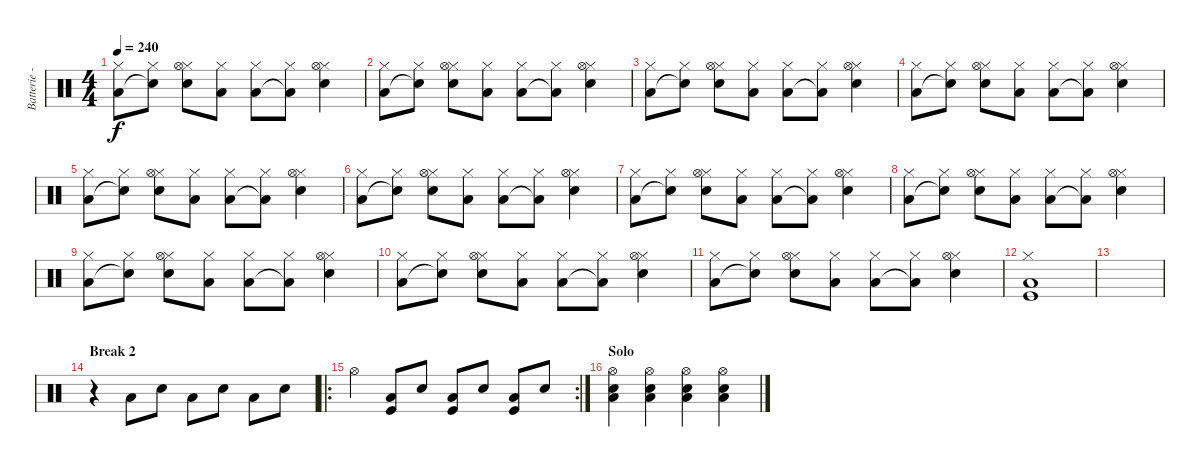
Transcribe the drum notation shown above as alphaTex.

\track ("Batterie - Guillaume" "Batterie -") {instrument percussion}
\staff {score}
\articulation defaults
\ts (4 4)
\tempo 240
\clef neutral
\ks c
("Hi-Hat (closed)" "Low Tom (hit)").8{dy f} ("Hi-Hat (closed)" "Snare (hit)"{t}).8 ("Hi-Hat (closed)" "Hi-Hat (open)" "Electric Snare (hit)").8 ("Hi-Hat (closed)" "Low Tom (hit)").8 ("Hi-Hat (closed)" "Low Tom (hit)").8 ("Hi-Hat (closed)" "Low Tom (hit)"{t}).8 ("Hi-Hat (closed)" "Hi-Hat (open)" "Electric Snare (hit)").4 |
("Hi-Hat (closed)" "Low Tom (hit)").8 ("Hi-Hat (closed)" "Snare (hit)"{t}).8 ("Hi-Hat (closed)" "Hi-Hat (open)" "Electric Snare (hit)").8 ("Hi-Hat (closed)" "Low Tom (hit)").8 ("Hi-Hat (closed)" "Low Tom (hit)").8 ("Hi-Hat (closed)" "Low Tom (hit)"{t}).8 ("Hi-Hat (closed)" "Hi-Hat (open)" "Electric Snare (hit)").4 |
("Hi-Hat (closed)" "Low Tom (hit)").8 ("Hi-Hat (closed)" "Snare (hit)"{t}).8 ("Hi-Hat (closed)" "Hi-Hat (open)" "Electric Snare (hit)").8 ("Hi-Hat (closed)" "Low Tom (hit)").8 ("Hi-Hat (closed)" "Low Tom (hit)").8 ("Hi-Hat (closed)" "Low Tom (hit)"{t}).8 ("Hi-Hat (closed)" "Hi-Hat (open)" "Electric Snare (hit)").4 |
("Hi-Hat (closed)" "Low Tom (hit)").8 ("Hi-Hat (closed)" "Snare (hit)"{t}).8 ("Hi-Hat (closed)" "Hi-Hat (open)" "Electric Snare (hit)").8 ("Hi-Hat (closed)" "Low Tom (hit)").8 ("Hi-Hat (closed)" "Low Tom (hit)").8 ("Hi-Hat (closed)" "Low Tom (hit)"{t}).8 ("Hi-Hat (closed)" "Hi-Hat (open)" "Electric Snare (hit)").4 |
("Hi-Hat (closed)" "Low Tom (hit)").8 ("Hi-Hat (closed)" "Snare (hit)"{t}).8 ("Hi-Hat (closed)" "Hi-Hat (open)" "Electric Snare (hit)").8 ("Hi-Hat (closed)" "Low Tom (hit)").8 ("Hi-Hat (closed)" "Low Tom (hit)").8 ("Hi-Hat (closed)" "Low Tom (hit)"{t}).8 ("Hi-Hat (closed)" "Hi-Hat (open)" "Electric Snare (hit)").4 |
("Hi-Hat (closed)" "Low Tom (hit)").8 ("Hi-Hat (closed)" "Snare (hit)"{t}).8 ("Hi-Hat (closed)" "Hi-Hat (open)" "Electric Snare (hit)").8 ("Hi-Hat (closed)" "Low Tom (hit)").8 ("Hi-Hat (closed)" "Low Tom (hit)").8 ("Hi-Hat (closed)" "Low Tom (hit)"{t}).8 ("Hi-Hat (closed)" "Hi-Hat (open)" "Electric Snare (hit)").4 |
("Hi-Hat (closed)" "Low Tom (hit)").8 ("Hi-Hat (closed)" "Snare (hit)"{t}).8 ("Hi-Hat (closed)" "Hi-Hat (open)" "Electric Snare (hit)").8 ("Hi-Hat (closed)" "Low Tom (hit)").8 ("Hi-Hat (closed)" "Low Tom (hit)").8 ("Hi-Hat (closed)" "Low Tom (hit)"{t}).8 ("Hi-Hat (closed)" "Hi-Hat (open)" "Electric Snare (hit)").4 |
("Hi-Hat (closed)" "Low Tom (hit)").8 ("Hi-Hat (closed)" "Snare (hit)"{t}).8 ("Hi-Hat (closed)" "Hi-Hat (open)" "Electric Snare (hit)").8 ("Hi-Hat (closed)" "Low Tom (hit)").8 ("Hi-Hat (closed)" "Low Tom (hit)").8 ("Hi-Hat (closed)" "Low Tom (hit)"{t}).8 ("Hi-Hat (closed)" "Hi-Hat (open)" "Electric Snare (hit)").4 |
("Hi-Hat (closed)" "Low Tom (hit)").8 ("Hi-Hat (closed)" "Snare (hit)"{t}).8 ("Hi-Hat (closed)" "Hi-Hat (open)" "Electric Snare (hit)").8 ("Hi-Hat (closed)" "Low Tom (hit)").8 ("Hi-Hat (closed)" "Low Tom (hit)").8 ("Hi-Hat (closed)" "Low Tom (hit)"{t}).8 ("Hi-Hat (closed)" "Hi-Hat (open)" "Electric Snare (hit)").4 |
("Hi-Hat (closed)" "Low Tom (hit)").8 ("Hi-Hat (closed)" "Snare (hit)"{t}).8 ("Hi-Hat (closed)" "Hi-Hat (open)" "Electric Snare (hit)").8 ("Hi-Hat (closed)" "Low Tom (hit)").8 ("Hi-Hat (closed)" "Low Tom (hit)").8 ("Hi-Hat (closed)" "Low Tom (hit)"{t}).8 ("Hi-Hat (closed)" "Hi-Hat (open)" "Electric Snare (hit)").4 |
("Hi-Hat (closed)" "Low Tom (hit)").8 ("Hi-Hat (closed)" "Snare (hit)"{t}).8 ("Hi-Hat (closed)" "Hi-Hat (open)" "Electric Snare (hit)").8 ("Hi-Hat (closed)" "Low Tom (hit)").8 ("Hi-Hat (closed)" "Low Tom (hit)").8 ("Hi-Hat (closed)" "Low Tom (hit)"{t}).8 ("Hi-Hat (closed)" "Hi-Hat (open)" "Electric Snare (hit)").4 |
("Hi-Hat (closed)" "Low Tom (hit)" "Kick (hit)").1 |
|
\section ("" "Break 2")
r.4 "Low Tom (hit)".8 "Electric Snare (hit)".8 "Low Tom (hit)".8 "Electric Snare (hit)".8 "Low Tom (hit)".8 "Electric Snare (hit)".8 |
\ro
\rc 2 "Hi-Hat (open)".4
("Low Tom (hit)" "Kick (hit)").8 "Electric Snare (hit)".8 ("Low Tom (hit)" "Kick (hit)").8 "Electric Snare (hit)".8 ("Low Tom (hit)" "Kick (hit)").8 "Electric Snare (hit)".8 |
\section ("" "Solo")
("Hi-Hat (open)" "Low Tom (hit)" "Electric Snare (hit)").4 ("Hi-Hat (open)" "Low Tom (hit)" "Electric Snare (hit)").4 ("Hi-Hat (open)" "Low Tom (hit)" "Electric Snare (hit)").4 ("Hi-Hat (open)" "Low Tom (hit)" "Electric Snare (hit)").4
